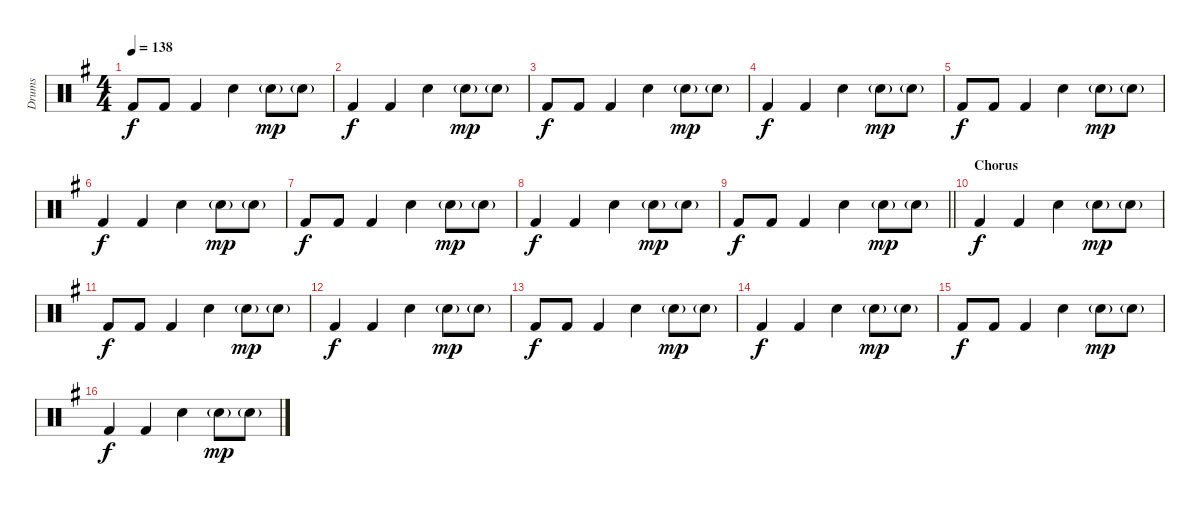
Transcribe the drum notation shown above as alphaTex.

\track ("Drums" "Drums") {instrument percussion}
\staff {score}
\articulation defaults
\ts (4 4)
\tempo 138
\clef neutral
\ks g "Kick (hit) 2".8{dy f} "Kick (hit) 2".8 "Kick (hit) 2".4 "Snare (hit) 2".4 "Snare (hit) 2"{g}.8{dy mp} "Snare (hit) 2"{g}.8
|
"Kick (hit) 2".4{dy f} "Kick (hit) 2".4 "Snare (hit) 2".4 "Snare (hit) 2"{g}.8{dy mp} "Snare (hit) 2"{g}.8 |
"Kick (hit) 2".8{dy f} "Kick (hit) 2".8 "Kick (hit) 2".4 "Snare (hit) 2".4 "Snare (hit) 2"{g}.8{dy mp} "Snare (hit) 2"{g}.8 |
"Kick (hit) 2".4{dy f} "Kick (hit) 2".4 "Snare (hit) 2".4 "Snare (hit) 2"{g}.8{dy mp} "Snare (hit) 2"{g}.8 |
"Kick (hit) 2".8{dy f} "Kick (hit) 2".8 "Kick (hit) 2".4 "Snare (hit) 2".4 "Snare (hit) 2"{g}.8{dy mp} "Snare (hit) 2"{g}.8 |
"Kick (hit) 2".4{dy f} "Kick (hit) 2".4 "Snare (hit) 2".4 "Snare (hit) 2"{g}.8{dy mp} "Snare (hit) 2"{g}.8 |
"Kick (hit) 2".8{dy f} "Kick (hit) 2".8 "Kick (hit) 2".4 "Snare (hit) 2".4 "Snare (hit) 2"{g}.8{dy mp} "Snare (hit) 2"{g}.8 |
"Kick (hit) 2".4{dy f} "Kick (hit) 2".4 "Snare (hit) 2".4 "Snare (hit) 2"{g}.8{dy mp} "Snare (hit) 2"{g}.8 |
\barLineRight lightlight "Kick (hit) 2".8{dy f} "Kick (hit) 2".8 "Kick (hit) 2".4 "Snare (hit) 2".4 "Snare (hit) 2"{g}.8{dy mp} "Snare (hit) 2"{g}.8
|
\section ("" "Chorus")
"Kick (hit) 2".4{dy f} "Kick (hit) 2".4 "Snare (hit) 2".4 "Snare (hit) 2"{g}.8{dy mp} "Snare (hit) 2"{g}.8 |
"Kick (hit) 2".8{dy f} "Kick (hit) 2".8 "Kick (hit) 2".4 "Snare (hit) 2".4 "Snare (hit) 2"{g}.8{dy mp} "Snare (hit) 2"{g}.8 |
"Kick (hit) 2".4{dy f} "Kick (hit) 2".4 "Snare (hit) 2".4 "Snare (hit) 2"{g}.8{dy mp} "Snare (hit) 2"{g}.8 |
"Kick (hit) 2".8{dy f} "Kick (hit) 2".8 "Kick (hit) 2".4 "Snare (hit) 2".4 "Snare (hit) 2"{g}.8{dy mp} "Snare (hit) 2"{g}.8 |
"Kick (hit) 2".4{dy f} "Kick (hit) 2".4 "Snare (hit) 2".4 "Snare (hit) 2"{g}.8{dy mp} "Snare (hit) 2"{g}.8 |
"Kick (hit) 2".8{dy f} "Kick (hit) 2".8 "Kick (hit) 2".4 "Snare (hit) 2".4 "Snare (hit) 2"{g}.8{dy mp} "Snare (hit) 2"{g}.8 |
"Kick (hit) 2".4{dy f} "Kick (hit) 2".4 "Snare (hit) 2".4 "Snare (hit) 2"{g}.8{dy mp} "Snare (hit) 2"{g}.8
